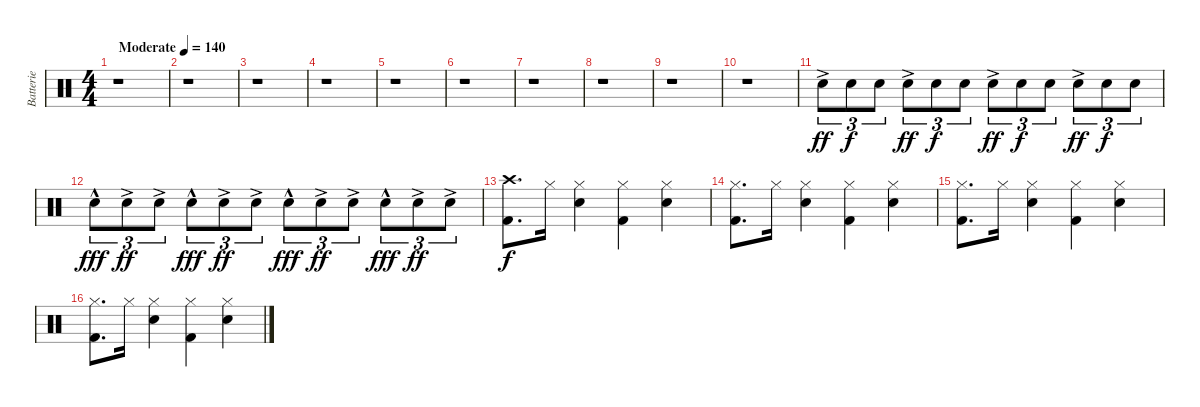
\track ("Batterie" "Batterie") {instrument percussion}
\staff {score}
\articulation defaults
\ts (4 4)
\tempo (140 "Moderate")
\clef neutral
\ks c
r.1{dy ff} |
r.1 |
r.1 |
r.1 |
r.1 |
r.1 |
r.1 |
r.1 |
r.1 |
r.1 |
"Electric Snare (hit)"{ac}.8{tu (3 2)} "Electric Snare (hit)".8{tu (3 2) dy f} "Electric Snare (hit)".8{tu (3 2)} "Electric Snare (hit)"{ac}.8{tu (3 2) dy ff} "Electric Snare (hit)".8{tu (3 2) dy f} "Electric Snare (hit)".8{tu (3 2)} "Electric Snare (hit)"{ac}.8{tu (3 2) dy ff} "Electric Snare (hit)".8{tu (3 2) dy f} "Electric Snare (hit)".8{tu (3 2)} "Electric Snare (hit)"{ac}.8{tu (3 2) dy ff} "Electric Snare (hit)".8{tu (3 2) dy f} "Electric Snare (hit)".8{tu (3 2)} |
"Electric Snare (hit)"{hac}.8{tu (3 2) dy fff} "Electric Snare (hit)"{ac}.8{tu (3 2) dy ff} "Electric Snare (hit)"{ac}.8{tu (3 2)} "Electric Snare (hit)"{hac}.8{tu (3 2) dy fff} "Electric Snare (hit)"{ac}.8{tu (3 2) dy ff} "Electric Snare (hit)"{ac}.8{tu (3 2)} "Electric Snare (hit)"{hac}.8{tu (3 2) dy fff} "Electric Snare (hit)"{ac}.8{tu (3 2) dy ff} "Electric Snare (hit)"{ac}.8{tu (3 2)} "Electric Snare (hit)"{hac}.8{tu (3 2) dy fff} "Electric Snare (hit)"{ac}.8{tu (3 2) dy ff} "Electric Snare (hit)"{ac}.8{tu (3 2)} |
("Crash high (hit)" "Kick (hit) 2").8{d dy f} "Hi-Hat (closed)".16 ("Hi-Hat (closed)" "Electric Snare (hit)").4 ("Hi-Hat (closed)" "Kick (hit) 2").4 ("Hi-Hat (closed)" "Electric Snare (hit)").4 |
("Hi-Hat (closed)" "Kick (hit) 2").8{d} "Hi-Hat (closed)".16 ("Hi-Hat (closed)" "Electric Snare (hit)").4 ("Hi-Hat (closed)" "Kick (hit) 2").4 ("Hi-Hat (closed)" "Electric Snare (hit)").4 |
("Hi-Hat (closed)" "Kick (hit) 2").8{d} "Hi-Hat (closed)".16 ("Hi-Hat (closed)" "Electric Snare (hit)").4 ("Hi-Hat (closed)" "Kick (hit) 2").4 ("Hi-Hat (closed)" "Electric Snare (hit)").4 |
("Hi-Hat (closed)" "Kick (hit) 2").8{d} "Hi-Hat (closed)".16 ("Hi-Hat (closed)" "Electric Snare (hit)").4 ("Hi-Hat (closed)" "Kick (hit) 2").4 ("Hi-Hat (closed)" "Electric Snare (hit)").4
